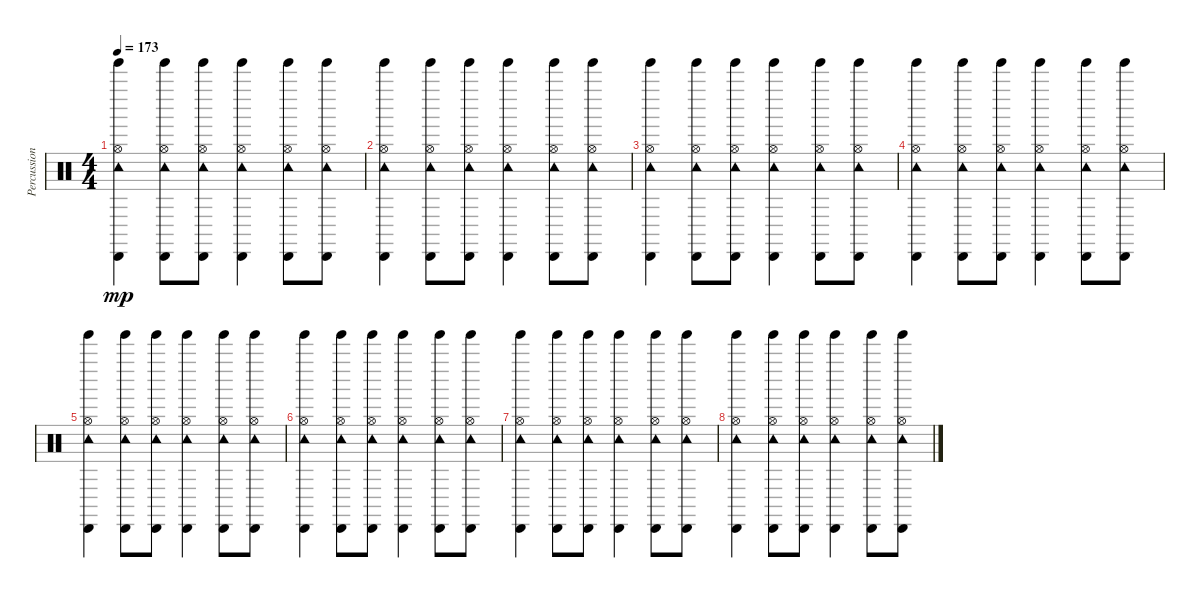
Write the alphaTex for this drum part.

\track ("Percussion" "Percussion") {instrument percussion}
\staff {score}
\articulation defaults
\ts (4 4)
\tempo 173
\clef neutral
\ks c
("Cabasa (hit)" "Hi-Hat (open)" "Tambourine (hit)" "Tinkle Bell (hit)").4{dy mp} ("Cabasa (hit)" "Hi-Hat (open)" "Tambourine (hit)" "Tinkle Bell (hit)").8 ("Cabasa (hit)" "Hi-Hat (open)" "Tambourine (hit)" "Tinkle Bell (hit)").8 ("Cabasa (hit)" "Hi-Hat (open)" "Tambourine (hit)" "Tinkle Bell (hit)").4 ("Cabasa (hit)" "Hi-Hat (open)" "Tambourine (hit)" "Tinkle Bell (hit)").8 ("Cabasa (hit)" "Hi-Hat (open)" "Tambourine (hit)" "Tinkle Bell (hit)").8 |
("Cabasa (hit)" "Hi-Hat (open)" "Tambourine (hit)" "Tinkle Bell (hit)").4 ("Cabasa (hit)" "Hi-Hat (open)" "Tambourine (hit)" "Tinkle Bell (hit)").8 ("Cabasa (hit)" "Hi-Hat (open)" "Tambourine (hit)" "Tinkle Bell (hit)").8 ("Cabasa (hit)" "Hi-Hat (open)" "Tambourine (hit)" "Tinkle Bell (hit)").4 ("Cabasa (hit)" "Hi-Hat (open)" "Tambourine (hit)" "Tinkle Bell (hit)").8 ("Cabasa (hit)" "Hi-Hat (open)" "Tambourine (hit)" "Tinkle Bell (hit)").8 |
("Cabasa (hit)" "Hi-Hat (open)" "Tambourine (hit)" "Tinkle Bell (hit)").4 ("Cabasa (hit)" "Hi-Hat (open)" "Tambourine (hit)" "Tinkle Bell (hit)").8 ("Cabasa (hit)" "Hi-Hat (open)" "Tambourine (hit)" "Tinkle Bell (hit)").8 ("Cabasa (hit)" "Hi-Hat (open)" "Tambourine (hit)" "Tinkle Bell (hit)").4 ("Cabasa (hit)" "Hi-Hat (open)" "Tambourine (hit)" "Tinkle Bell (hit)").8 ("Cabasa (hit)" "Hi-Hat (open)" "Tambourine (hit)" "Tinkle Bell (hit)").8 |
("Cabasa (hit)" "Hi-Hat (open)" "Tambourine (hit)" "Tinkle Bell (hit)").4 ("Cabasa (hit)" "Hi-Hat (open)" "Tambourine (hit)" "Tinkle Bell (hit)").8 ("Cabasa (hit)" "Hi-Hat (open)" "Tambourine (hit)" "Tinkle Bell (hit)").8 ("Cabasa (hit)" "Hi-Hat (open)" "Tambourine (hit)" "Tinkle Bell (hit)").4 ("Cabasa (hit)" "Hi-Hat (open)" "Tambourine (hit)" "Tinkle Bell (hit)").8 ("Cabasa (hit)" "Hi-Hat (open)" "Tambourine (hit)" "Tinkle Bell (hit)").8 |
("Cabasa (hit)" "Hi-Hat (open)" "Tambourine (hit)" "Tinkle Bell (hit)").4 ("Cabasa (hit)" "Hi-Hat (open)" "Tambourine (hit)" "Tinkle Bell (hit)").8 ("Cabasa (hit)" "Hi-Hat (open)" "Tambourine (hit)" "Tinkle Bell (hit)").8 ("Cabasa (hit)" "Hi-Hat (open)" "Tambourine (hit)" "Tinkle Bell (hit)").4 ("Cabasa (hit)" "Hi-Hat (open)" "Tambourine (hit)" "Tinkle Bell (hit)").8 ("Cabasa (hit)" "Hi-Hat (open)" "Tambourine (hit)" "Tinkle Bell (hit)").8 |
("Cabasa (hit)" "Hi-Hat (open)" "Tambourine (hit)" "Tinkle Bell (hit)").4 ("Cabasa (hit)" "Hi-Hat (open)" "Tambourine (hit)" "Tinkle Bell (hit)").8 ("Cabasa (hit)" "Hi-Hat (open)" "Tambourine (hit)" "Tinkle Bell (hit)").8 ("Cabasa (hit)" "Hi-Hat (open)" "Tambourine (hit)" "Tinkle Bell (hit)").4 ("Cabasa (hit)" "Hi-Hat (open)" "Tambourine (hit)" "Tinkle Bell (hit)").8 ("Cabasa (hit)" "Hi-Hat (open)" "Tambourine (hit)" "Tinkle Bell (hit)").8 |
("Cabasa (hit)" "Hi-Hat (open)" "Tambourine (hit)" "Tinkle Bell (hit)").4 ("Cabasa (hit)" "Hi-Hat (open)" "Tambourine (hit)" "Tinkle Bell (hit)").8 ("Cabasa (hit)" "Hi-Hat (open)" "Tambourine (hit)" "Tinkle Bell (hit)").8 ("Cabasa (hit)" "Hi-Hat (open)" "Tambourine (hit)" "Tinkle Bell (hit)").4 ("Cabasa (hit)" "Hi-Hat (open)" "Tambourine (hit)" "Tinkle Bell (hit)").8 ("Cabasa (hit)" "Hi-Hat (open)" "Tambourine (hit)" "Tinkle Bell (hit)").8 |
("Cabasa (hit)" "Hi-Hat (open)" "Tambourine (hit)" "Tinkle Bell (hit)").4 ("Cabasa (hit)" "Hi-Hat (open)" "Tambourine (hit)" "Tinkle Bell (hit)").8 ("Cabasa (hit)" "Hi-Hat (open)" "Tambourine (hit)" "Tinkle Bell (hit)").8 ("Cabasa (hit)" "Hi-Hat (open)" "Tambourine (hit)" "Tinkle Bell (hit)").4 ("Cabasa (hit)" "Hi-Hat (open)" "Tambourine (hit)" "Tinkle Bell (hit)").8 ("Cabasa (hit)" "Hi-Hat (open)" "Tambourine (hit)" "Tinkle Bell (hit)").8
